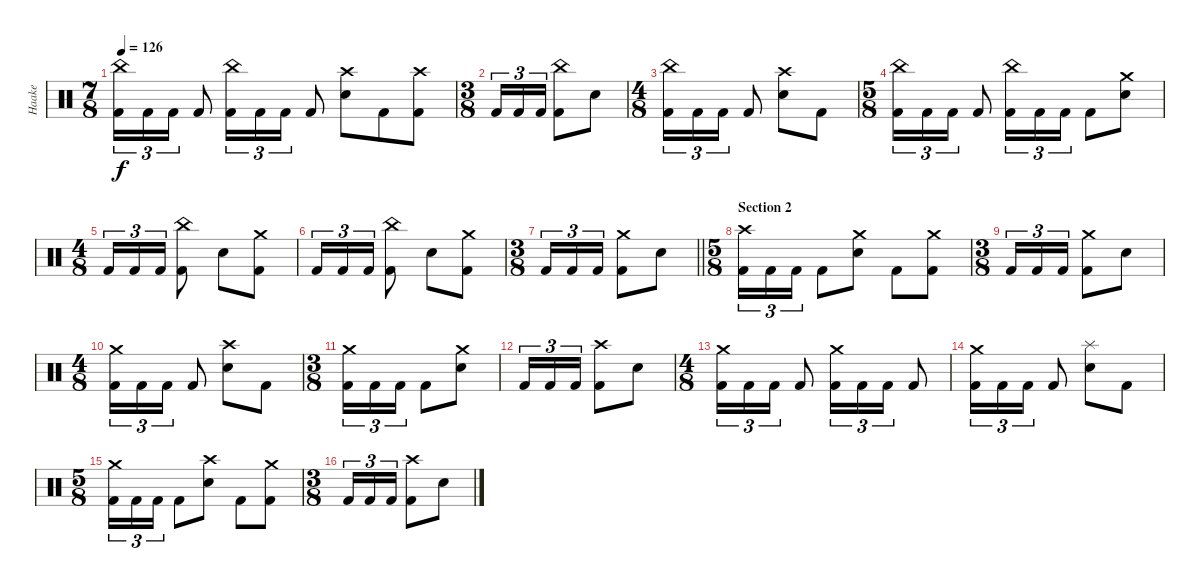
\track ("Haake" "Haake") {instrument percussion}
\staff {score}
\articulation defaults
\ts (7 8)
\tempo 126
\clef neutral
\ks c
("China (hit)" "Kick (hit) 2").16{tu (3 2) dy f} "Kick (hit) 2".16{tu (3 2)} "Kick (hit) 2".16{tu (3 2)} "Kick (hit) 2".8 ("China (hit)" "Kick (hit) 2").16{tu (3 2)} "Kick (hit) 2".16{tu (3 2)} "Kick (hit) 2".16{tu (3 2)} "Kick (hit) 2".8 ("Crash high (hit)" "Electric Snare (hit)").8 "Kick (hit) 2".8 ("Crash high (hit)" "Kick (hit) 2").8 |
\ts (3 8)
"Kick (hit) 2".16{tu (3 2)} "Kick (hit) 2".16{tu (3 2)} "Kick (hit) 2".16{tu (3 2)} ("China (hit)" "Kick (hit) 2").8 "Electric Snare (hit)".8 |
\ts (4 8)
("China (hit)" "Kick (hit) 2").16{tu (3 2)} "Kick (hit) 2".16{tu (3 2)} "Kick (hit) 2".16{tu (3 2)} "Kick (hit) 2".8 ("Crash high (hit)" "Electric Snare (hit)").8 "Kick (hit) 2".8 |
\ts (5 8)
("China (hit)" "Kick (hit) 2").16{tu (3 2)} "Kick (hit) 2".16{tu (3 2)} "Kick (hit) 2".16{tu (3 2)} "Kick (hit) 2".8 ("China (hit)" "Kick (hit) 2").16{tu (3 2)} "Kick (hit) 2".16{tu (3 2)} "Kick (hit) 2".16{tu (3 2)} "Kick (hit) 2".8 ("Crash medium (hit)" "Electric Snare (hit)").8 |
\ts (4 8)
"Kick (hit) 2".16{tu (3 2)} "Kick (hit) 2".16{tu (3 2)} "Kick (hit) 2".16{tu (3 2)} ("China (hit)" "Kick (hit) 2").8 "Electric Snare (hit)".8 ("Crash medium (hit)" "Kick (hit) 2").8 |
"Kick (hit) 2".16{tu (3 2)} "Kick (hit) 2".16{tu (3 2)} "Kick (hit) 2".16{tu (3 2)} ("China (hit)" "Kick (hit) 2").8 "Electric Snare (hit)".8 ("Crash medium (hit)" "Kick (hit) 2").8 |
\ts (3 8)
\barLineRight lightlight "Kick (hit) 2".16{tu (3 2)} "Kick (hit) 2".16{tu (3 2)} "Kick (hit) 2".16{tu (3 2)}
("Crash medium (hit)" "Kick (hit) 2").8 "Electric Snare (hit)".8 |
\ts (5 8)
\section ("" "Section 2")
("Crash high (hit)" "Kick (hit) 2").16{tu (3 2)} "Kick (hit) 2".16{tu (3 2)} "Kick (hit) 2".16{tu (3 2)} "Kick (hit) 2".8 ("Crash medium (hit)" "Electric Snare (hit)").8 "Kick (hit) 2".8 ("Crash medium (hit)" "Kick (hit) 2").8 |
\ts (3 8)
"Kick (hit) 2".16{tu (3 2)} "Kick (hit) 2".16{tu (3 2)} "Kick (hit) 2".16{tu (3 2)} ("Crash medium (hit)" "Kick (hit) 2").8 "Electric Snare (hit)".8 |
\ts (4 8)
("Crash medium (hit)" "Kick (hit) 2").16{tu (3 2)} "Kick (hit) 2".16{tu (3 2)} "Kick (hit) 2".16{tu (3 2)} "Kick (hit) 2".8 ("Crash high (hit)" "Electric Snare (hit)").8 "Kick (hit) 2".8 |
\ts (3 8)
("Crash medium (hit)" "Kick (hit) 2").16{tu (3 2)} "Kick (hit) 2".16{tu (3 2)} "Kick (hit) 2".16{tu (3 2)} "Kick (hit) 2".8 ("Crash medium (hit)" "Electric Snare (hit)").8 |
"Kick (hit) 2".16{tu (3 2)} "Kick (hit) 2".16{tu (3 2)} "Kick (hit) 2".16{tu (3 2)} ("Crash high (hit)" "Kick (hit) 2").8 "Electric Snare (hit)".8 |
\ts (4 8)
("Crash medium (hit)" "Kick (hit) 2").16{tu (3 2)} "Kick (hit) 2".16{tu (3 2)} "Kick (hit) 2".16{tu (3 2)} "Kick (hit) 2".8 ("Crash medium (hit)" "Kick (hit) 2").16{tu (3 2)} "Kick (hit) 2".16{tu (3 2)} "Kick (hit) 2".16{tu (3 2)} "Kick (hit) 2".8 |
("Crash medium (hit)" "Kick (hit) 2").16{tu (3 2)} "Kick (hit) 2".16{tu (3 2)} "Kick (hit) 2".16{tu (3 2)} "Kick (hit) 2".8 ("Splash (hit)" "Electric Snare (hit)").8 "Kick (hit) 2".8 |
\ts (5 8)
("Crash medium (hit)" "Kick (hit) 2").16{tu (3 2)} "Kick (hit) 2".16{tu (3 2)} "Kick (hit) 2".16{tu (3 2)} "Kick (hit) 2".8 ("Crash high (hit)" "Electric Snare (hit)").8 "Kick (hit) 2".8 ("Crash medium (hit)" "Kick (hit) 2").8 |
\ts (3 8)
"Kick (hit) 2".16{tu (3 2)} "Kick (hit) 2".16{tu (3 2)} "Kick (hit) 2".16{tu (3 2)} ("Crash high (hit)" "Kick (hit) 2").8 "Electric Snare (hit)".8
